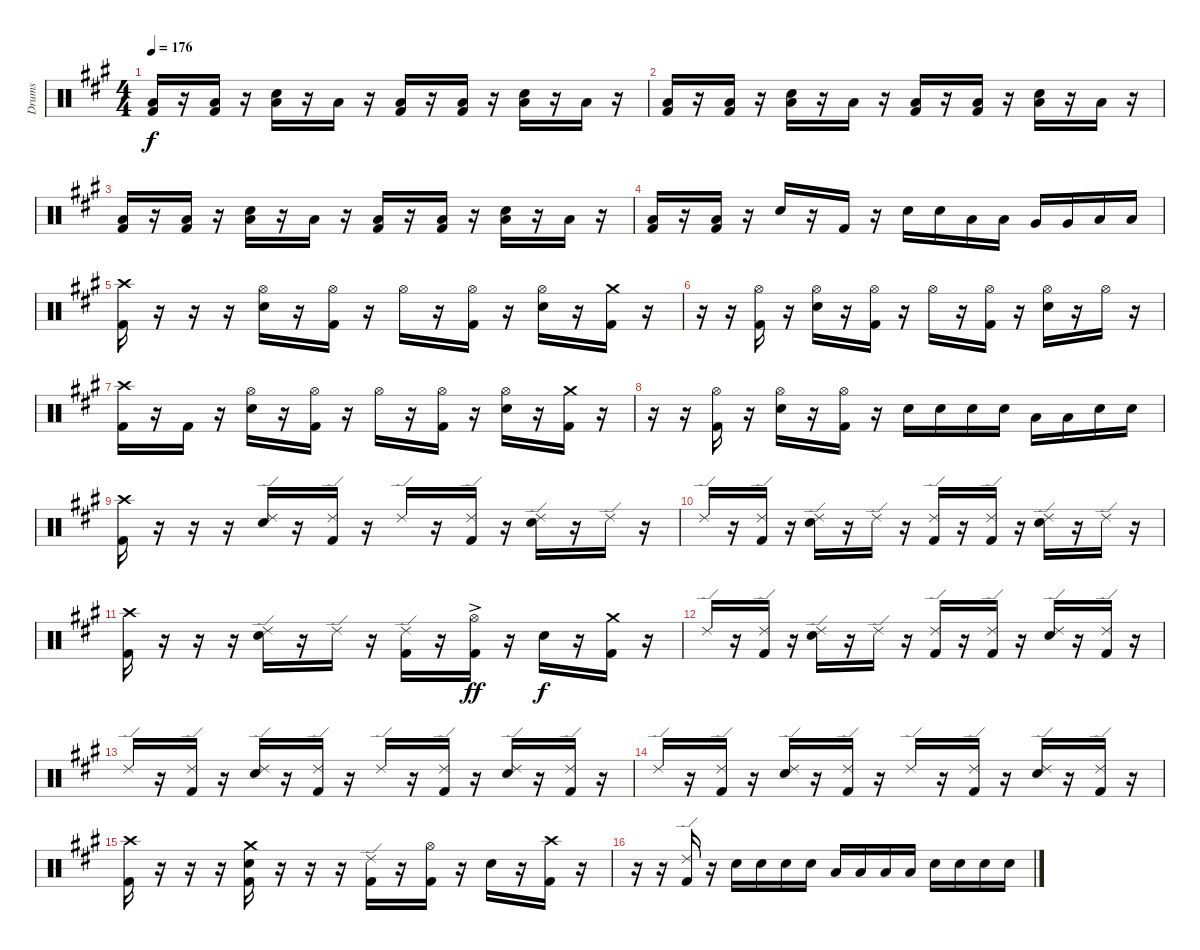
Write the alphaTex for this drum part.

\track ("Drums" "Drums") {instrument percussion}
\staff {score}
\articulation defaults
\ts (4 4)
\tempo 176
\clef neutral
\ks a
("Low Floor Tom (hit)" "Kick (hit) 2").16{dy f} r.16 ("Low Floor Tom (hit)" "Kick (hit) 2").16 r.16 ("Low Floor Tom (hit)" "Electric Snare (hit)").16 r.16 "Low Floor Tom (hit)".16 r.16 ("Low Floor Tom (hit)" "Kick (hit) 2").16 r.16 ("Low Floor Tom (hit)" "Kick (hit) 2").16 r.16 ("Low Floor Tom (hit)" "Electric Snare (hit)").16 r.16 "Low Floor Tom (hit)".16 r.16 |
("Low Floor Tom (hit)" "Kick (hit) 2").16 r.16 ("Low Floor Tom (hit)" "Kick (hit) 2").16 r.16 ("Low Floor Tom (hit)" "Electric Snare (hit)").16 r.16 "Low Floor Tom (hit)".16 r.16 ("Low Floor Tom (hit)" "Kick (hit) 2").16 r.16 ("Low Floor Tom (hit)" "Kick (hit) 2").16 r.16 ("Low Floor Tom (hit)" "Electric Snare (hit)").16 r.16 "Low Floor Tom (hit)".16 r.16 |
("Low Floor Tom (hit)" "Kick (hit) 2").16 r.16 ("Low Floor Tom (hit)" "Kick (hit) 2").16 r.16 ("Low Floor Tom (hit)" "Electric Snare (hit)").16 r.16 "Low Floor Tom (hit)".16 r.16 ("Low Floor Tom (hit)" "Kick (hit) 2").16 r.16 ("Low Floor Tom (hit)" "Kick (hit) 2").16 r.16 ("Low Floor Tom (hit)" "Electric Snare (hit)").16 r.16 "Low Floor Tom (hit)".16 r.16 |
("Low Floor Tom (hit)" "Kick (hit) 2").16 r.16 ("Low Floor Tom (hit)" "Kick (hit) 2").16 r.16 "Electric Snare (hit)".16 r.16 "Kick (hit) 2".16 r.16 "Electric Snare (hit)".16 "Electric Snare (hit)".16 "Low Tom (hit)".16 "Low Tom (hit)".16 "Very Low Tom (hit)".16 "Very Low Tom (hit)".16 "Low Floor Tom (hit)".16 "Low Floor Tom (hit)".16 |
("Crash high (hit)" "Kick (hit) 2").16 r.16 r.16 r.16 ("Hi-Hat (open)" "Electric Snare (hit)").16 r.16 ("Hi-Hat (open)" "Kick (hit) 2").16 r.16 "Hi-Hat (open)".16 r.16 ("Hi-Hat (open)" "Kick (hit) 2").16 r.16 ("Hi-Hat (open)" "Electric Snare (hit)").16 r.16 ("Crash medium (hit)" "Kick (hit) 2").16 r.16 |
r.16 r.16 ("Hi-Hat (open)" "Kick (hit) 2").16 r.16 ("Hi-Hat (open)" "Electric Snare (hit)").16 r.16 ("Hi-Hat (open)" "Kick (hit) 2").16 r.16 "Hi-Hat (open)".16 r.16 ("Hi-Hat (open)" "Kick (hit) 2").16 r.16 ("Hi-Hat (open)" "Electric Snare (hit)").16 r.16 "Hi-Hat (open)".16 r.16 |
("Crash high (hit)" "Kick (hit) 2").16 r.16 "Kick (hit) 2".16 r.16 ("Hi-Hat (open)" "Electric Snare (hit)").16 r.16 ("Hi-Hat (open)" "Kick (hit) 2").16 r.16 "Hi-Hat (open)".16 r.16 ("Hi-Hat (open)" "Kick (hit) 2").16 r.16 ("Hi-Hat (open)" "Electric Snare (hit)").16 r.16 ("Crash medium (hit)" "Kick (hit) 2").16 r.16 |
r.16 r.16 ("Hi-Hat (open)" "Kick (hit) 2").16 r.16 ("Hi-Hat (open)" "Electric Snare (hit)").16 r.16 ("Hi-Hat (open)" "Kick (hit) 2").16 r.16 "Electric Snare (hit)".16 "Electric Snare (hit)".16 "Electric Snare (hit)".16 "Electric Snare (hit)".16 "Low Tom (hit)".16 "Low Tom (hit)".16 "Electric Snare (hit)".16 "Electric Snare (hit)".16 |
("Crash high (hit)" "Kick (hit) 2").16 r.16 r.16 r.16 ("Ride (edge) 2" "Electric Snare (hit)").16 r.16 ("Ride (edge) 2" "Kick (hit) 2").16 r.16 "Ride (edge) 2".16 r.16 ("Ride (edge) 2" "Kick (hit) 2").16 r.16 ("Ride (edge) 2" "Electric Snare (hit)").16 r.16 "Ride (edge) 2".16 r.16 |
"Ride (edge) 2".16 r.16 ("Ride (edge) 2" "Kick (hit) 2").16 r.16 ("Ride (edge) 2" "Electric Snare (hit)").16 r.16 "Ride (edge) 2".16 r.16 ("Ride (edge) 2" "Kick (hit) 2").16 r.16 ("Ride (edge) 2" "Kick (hit) 2").16 r.16 ("Ride (edge) 2" "Electric Snare (hit)").16 r.16 "Ride (edge) 2".16 r.16 |
("Crash high (hit)" "Kick (hit) 2").16 r.16 r.16 r.16 ("Ride (edge) 2" "Electric Snare (hit)").16 r.16 "Ride (edge) 2".16 r.16 ("Ride (edge) 2" "Kick (hit) 2").16 r.16 ("Hi-Hat (open)"{ac} "Kick (hit) 2").16{dy ff} r.16 "Electric Snare (hit)".16{dy f} r.16 ("Crash medium (hit)" "Kick (hit) 2").16 r.16 |
"Ride (edge) 2".16 r.16 ("Ride (edge) 2" "Kick (hit) 2").16 r.16 ("Ride (edge) 2" "Electric Snare (hit)").16 r.16 "Ride (edge) 2".16 r.16 ("Ride (edge) 2" "Kick (hit) 2").16 r.16 ("Ride (edge) 2" "Kick (hit) 2").16 r.16 ("Ride (edge) 2" "Electric Snare (hit)").16 r.16 ("Ride (edge) 2" "Kick (hit) 2").16 r.16 |
"Ride (edge) 2".16 r.16 ("Ride (edge) 2" "Kick (hit) 2").16 r.16 ("Ride (edge) 2" "Electric Snare (hit)").16 r.16 ("Ride (edge) 2" "Kick (hit) 2").16 r.16 "Ride (edge) 2".16 r.16 ("Ride (edge) 2" "Kick (hit) 2").16 r.16 ("Ride (edge) 2" "Electric Snare (hit)").16 r.16 ("Ride (edge) 2" "Kick (hit) 2").16 r.16 |
"Ride (edge) 2".16 r.16 ("Ride (edge) 2" "Kick (hit) 2").16 r.16 ("Ride (edge) 2" "Electric Snare (hit)").16 r.16 ("Ride (edge) 2" "Kick (hit) 2").16 r.16 "Ride (edge) 2".16 r.16 ("Ride (edge) 2" "Kick (hit) 2").16 r.16 ("Ride (edge) 2" "Electric Snare (hit)").16 r.16 ("Ride (edge) 2" "Kick (hit) 2").16 r.16 |
("Crash high (hit)" "Kick (hit) 2").16 r.16 r.16 r.16 ("Crash medium (hit)" "Electric Snare (hit)" "Kick (hit) 2").16 r.16 r.16 r.16 ("Ride (edge) 2" "Kick (hit) 2").16 r.16 ("Hi-Hat (open)" "Kick (hit) 2").16 r.16 "Electric Snare (hit)".16 r.16 ("Crash high (hit)" "Kick (hit) 2").16 r.16 |
r.16 r.16 ("Ride (edge) 2" "Kick (hit) 2").16 r.16 "Electric Snare (hit)".16 "Electric Snare (hit)".16 "Electric Snare (hit)".16 "Electric Snare (hit)".16 "Low Tom (hit)".16 "Low Tom (hit)".16 "Low Tom (hit)".16 "Low Tom (hit)".16 "Electric Snare (hit)".16 "Electric Snare (hit)".16 "Electric Snare (hit)".16 "Electric Snare (hit)".16
